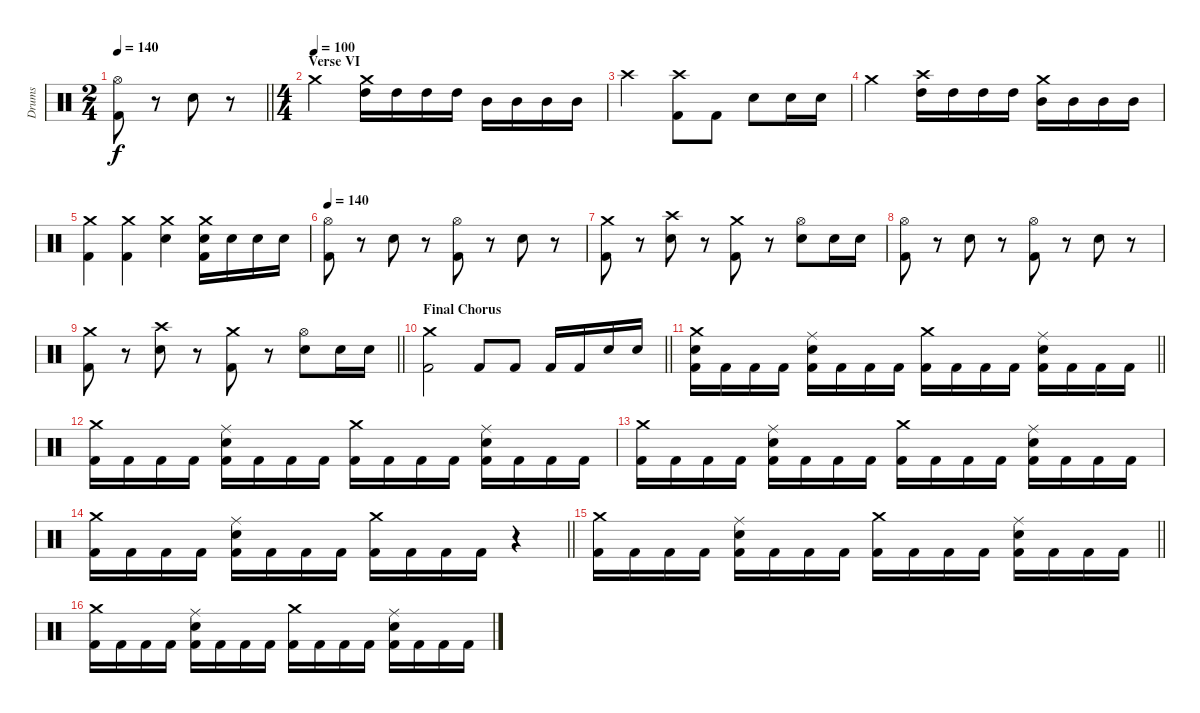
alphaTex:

\track ("Drums" "Drums") {instrument percussion}
\staff {score}
\articulation defaults
\ts (2 4)
\tempo 140
\clef neutral
\barLineRight lightlight
\ks c
("Hi-Hat (open)" "Kick (hit) 2").8{dy f} r.8 "Snare (hit) 2".8 r.8 |
\ts (4 4)
\section ("" "Verse VI")
\tempo (100)
"Crash medium (hit)".2 ("Crash medium (hit)" "High Tom (hit)").16 "High Tom (hit)".16 "High Tom (hit)".16 "High Tom (hit)".16 "Mid Tom (hit)".16 "Mid Tom (hit)".16 "Mid Tom (hit)".16 "Mid Tom (hit)".16 |
"Crash high (hit)".2 ("Crash high (hit)" "Kick (hit) 2").8 "Kick (hit) 2".8 "Snare (hit) 2".8 "Snare (hit) 2".16 "Snare (hit) 2".16 |
"Crash medium (hit)".2 ("Crash high (hit)" "High Tom (hit)").16 "High Tom (hit)".16 "High Tom (hit)".16 "High Tom (hit)".16 ("Crash medium (hit)" "Mid Tom (hit)").16 "Mid Tom (hit)".16 "Mid Tom (hit)".16 "Mid Tom (hit)".16 |
("Crash medium (hit)" "Kick (hit) 2").4 ("Crash medium (hit)" "Kick (hit) 2").4 ("Crash medium (hit)" "Snare (hit) 2").4 ("Crash medium (hit)" "Snare (hit) 2" "Kick (hit) 2").16 "Snare (hit) 2".16 "Snare (hit) 2".16 "Snare (hit) 2".16 |
\tempo 140
("Hi-Hat (open)" "Kick (hit) 2").8 r.8 "Snare (hit) 2".8 r.8 ("Hi-Hat (open)" "Kick (hit) 2").8 r.8 "Snare (hit) 2".8 r.8 |
("Crash medium (hit)" "Kick (hit) 2").8 r.8 ("Crash high (hit)" "Snare (hit) 2").8 r.8 ("Crash medium (hit)" "Kick (hit) 2").8 r.8 ("Hi-Hat (open)" "Snare (hit) 2").8 "Snare (hit) 2".16 "Snare (hit) 2".16 |
("Hi-Hat (open)" "Kick (hit) 2").8 r.8 "Snare (hit) 2".8 r.8 ("Hi-Hat (open)" "Kick (hit) 2").8 r.8 "Snare (hit) 2".8 r.8 |
\barLineRight lightlight
("Crash medium (hit)" "Kick (hit) 2").8 r.8 ("Crash high (hit)" "Snare (hit) 2").8 r.8 ("Crash medium (hit)" "Kick (hit) 2").8 r.8 ("Hi-Hat (open)" "Snare (hit) 2").8 "Snare (hit) 2".16 "Snare (hit) 2".16 |
\section ("" "Final Chorus")
\barLineRight lightlight
("Crash medium (hit)" "Kick (hit) 2").2 "Kick (hit) 2".8 "Kick (hit) 2".8 "Kick (hit) 2".16 "Kick (hit) 2".16 "Snare (hit) 2".16 "Snare (hit) 2".16 |
\barLineRight lightlight
("Crash medium (hit)" "Snare (hit) 2" "Kick (hit) 2").16 "Kick (hit) 2".16 "Kick (hit) 2".16 "Kick (hit) 2".16 ("Ride (middle)" "Snare (hit) 2" "Kick (hit) 2").16 "Kick (hit) 2".16 "Kick (hit) 2".16 "Kick (hit) 2".16 ("Crash medium (hit)" "Kick (hit) 2").16 "Kick (hit) 2".16 "Kick (hit) 2".16 "Kick (hit) 2".16 ("Ride (middle)" "Snare (hit) 2" "Kick (hit) 2").16 "Kick (hit) 2".16 "Kick (hit) 2".16 "Kick (hit) 2".16 |
("Crash medium (hit)" "Kick (hit) 2").16 "Kick (hit) 2".16 "Kick (hit) 2".16 "Kick (hit) 2".16 ("Ride (middle)" "Snare (hit) 2" "Kick (hit) 2").16 "Kick (hit) 2".16 "Kick (hit) 2".16 "Kick (hit) 2".16 ("Crash medium (hit)" "Kick (hit) 2").16 "Kick (hit) 2".16 "Kick (hit) 2".16 "Kick (hit) 2".16 ("Ride (middle)" "Snare (hit) 2" "Kick (hit) 2").16 "Kick (hit) 2".16 "Kick (hit) 2".16 "Kick (hit) 2".16 |
("Crash medium (hit)" "Kick (hit) 2").16 "Kick (hit) 2".16 "Kick (hit) 2".16 "Kick (hit) 2".16 ("Ride (middle)" "Snare (hit) 2" "Kick (hit) 2").16 "Kick (hit) 2".16 "Kick (hit) 2".16 "Kick (hit) 2".16 ("Crash medium (hit)" "Kick (hit) 2").16 "Kick (hit) 2".16 "Kick (hit) 2".16 "Kick (hit) 2".16 ("Ride (middle)" "Snare (hit) 2" "Kick (hit) 2").16 "Kick (hit) 2".16 "Kick (hit) 2".16 "Kick (hit) 2".16 |
\barLineRight lightlight
("Crash medium (hit)" "Kick (hit) 2").16 "Kick (hit) 2".16 "Kick (hit) 2".16 "Kick (hit) 2".16 ("Ride (middle)" "Snare (hit) 2" "Kick (hit) 2").16 "Kick (hit) 2".16 "Kick (hit) 2".16 "Kick (hit) 2".16 ("Crash medium (hit)" "Kick (hit) 2").16 "Kick (hit) 2".16 "Kick (hit) 2".16 "Kick (hit) 2".16 r.4 |
\barLineRight lightlight
("Crash medium (hit)" "Kick (hit) 2").16 "Kick (hit) 2".16 "Kick (hit) 2".16 "Kick (hit) 2".16 ("Ride (middle)" "Snare (hit) 2" "Kick (hit) 2").16 "Kick (hit) 2".16 "Kick (hit) 2".16 "Kick (hit) 2".16 ("Crash medium (hit)" "Kick (hit) 2").16 "Kick (hit) 2".16 "Kick (hit) 2".16 "Kick (hit) 2".16 ("Ride (middle)" "Snare (hit) 2" "Kick (hit) 2").16 "Kick (hit) 2".16 "Kick (hit) 2".16 "Kick (hit) 2".16 |
("Crash medium (hit)" "Kick (hit) 2").16 "Kick (hit) 2".16 "Kick (hit) 2".16 "Kick (hit) 2".16 ("Ride (middle)" "Snare (hit) 2" "Kick (hit) 2").16 "Kick (hit) 2".16 "Kick (hit) 2".16 "Kick (hit) 2".16 ("Crash medium (hit)" "Kick (hit) 2").16 "Kick (hit) 2".16 "Kick (hit) 2".16 "Kick (hit) 2".16 ("Ride (middle)" "Snare (hit) 2" "Kick (hit) 2").16 "Kick (hit) 2".16 "Kick (hit) 2".16 "Kick (hit) 2".16
